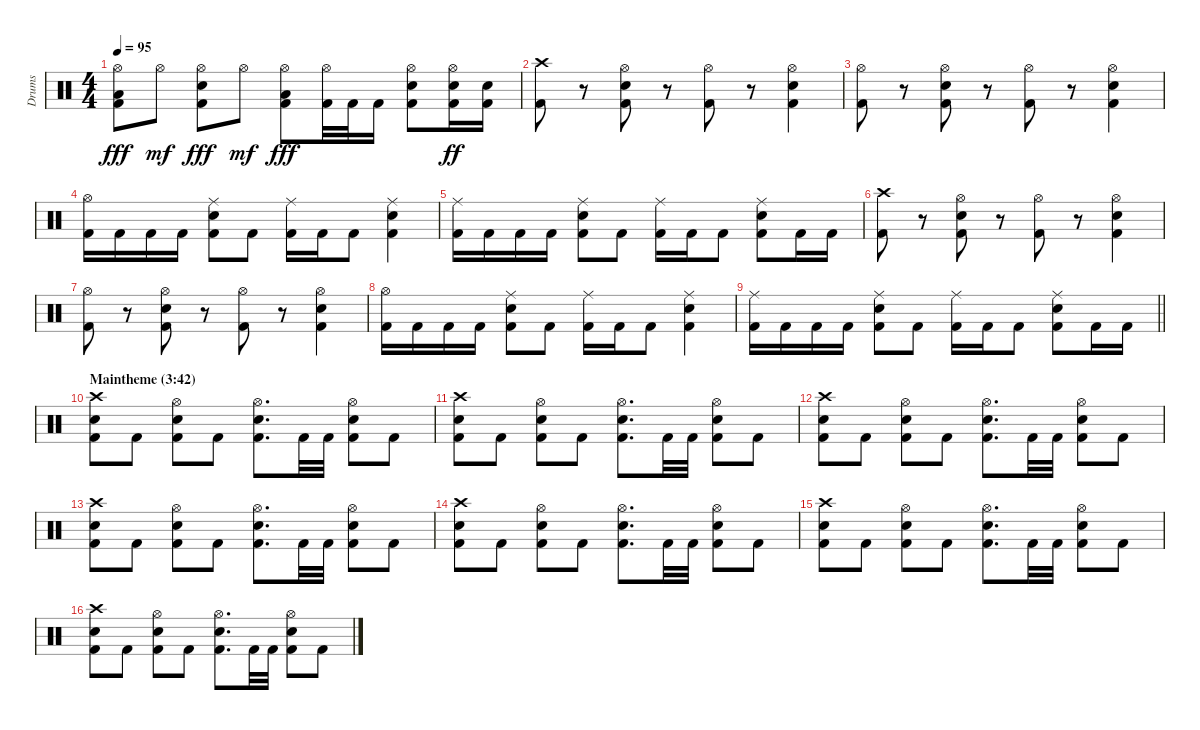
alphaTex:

\track ("Drums" "Drums") {instrument percussion}
\staff {score}
\articulation defaults
\ts (4 4)
\tempo 95
\clef neutral
\ks c
("Hi-Hat (open)" "Low Floor Tom (hit)" "Kick (hit) 2").8{dy fff} "Hi-Hat (open)".8{dy mf} ("Hi-Hat (open)" "Snare (hit) 2" "Kick (hit) 2").8{dy fff} "Hi-Hat (open)".8{dy mf} ("Hi-Hat (open)" "Low Floor Tom (hit)" "Kick (hit) 2").8{dy fff} ("Hi-Hat (open)" "Kick (hit) 2").32 "Kick (hit) 2".32 "Kick (hit) 2".16 ("Hi-Hat (open)" "Snare (hit) 2" "Kick (hit) 2").8 ("Hi-Hat (open)" "Snare (hit) 2" "Kick (hit) 2").16{dy ff} ("Snare (hit) 2" "Kick (hit) 2").16 |
("Crash high (hit)" "Kick (hit) 2").8 r.8 ("Hi-Hat (open)" "Snare (hit) 2" "Kick (hit) 2").8 r.8 ("Hi-Hat (open)" "Kick (hit) 2").8 r.8 ("Hi-Hat (open)" "Snare (hit) 2" "Kick (hit) 2").4 |
("Hi-Hat (open)" "Kick (hit) 2").8 r.8 ("Hi-Hat (open)" "Snare (hit) 2" "Kick (hit) 2").8 r.8 ("Hi-Hat (open)" "Kick (hit) 2").8 r.8 ("Hi-Hat (open)" "Snare (hit) 2" "Kick (hit) 2").4 |
("Hi-Hat (open)" "Kick (hit) 2").16 "Kick (hit) 2".16 "Kick (hit) 2".16 "Kick (hit) 2".16 ("Ride (middle)" "Snare (hit) 2" "Kick (hit) 2").8 "Kick (hit) 2".8 ("Ride (middle)" "Kick (hit) 2").16 "Kick (hit) 2".16 "Kick (hit) 2".8 ("Ride (middle)" "Snare (hit) 2" "Kick (hit) 2").4 |
("Ride (middle)" "Kick (hit) 2").16 "Kick (hit) 2".16 "Kick (hit) 2".16 "Kick (hit) 2".16 ("Ride (middle)" "Snare (hit) 2" "Kick (hit) 2").8 "Kick (hit) 2".8 ("Ride (middle)" "Kick (hit) 2").16 "Kick (hit) 2".16 "Kick (hit) 2".8 ("Ride (middle)" "Snare (hit) 2" "Kick (hit) 2").8 "Kick (hit) 2".16 "Kick (hit) 2".16 |
("Crash high (hit)" "Kick (hit) 2").8 r.8 ("Hi-Hat (open)" "Snare (hit) 2" "Kick (hit) 2").8 r.8 ("Hi-Hat (open)" "Kick (hit) 2").8 r.8 ("Hi-Hat (open)" "Snare (hit) 2" "Kick (hit) 2").4 |
("Hi-Hat (open)" "Kick (hit) 2").8 r.8 ("Hi-Hat (open)" "Snare (hit) 2" "Kick (hit) 2").8 r.8 ("Hi-Hat (open)" "Kick (hit) 2").8 r.8 ("Hi-Hat (open)" "Snare (hit) 2" "Kick (hit) 2").4 |
("Hi-Hat (open)" "Kick (hit) 2").16 "Kick (hit) 2".16 "Kick (hit) 2".16 "Kick (hit) 2".16 ("Ride (middle)" "Snare (hit) 2" "Kick (hit) 2").8 "Kick (hit) 2".8 ("Ride (middle)" "Kick (hit) 2").16 "Kick (hit) 2".16 "Kick (hit) 2".8 ("Ride (middle)" "Snare (hit) 2" "Kick (hit) 2").4 |
\barLineRight lightlight
("Ride (middle)" "Kick (hit) 2").16 "Kick (hit) 2".16 "Kick (hit) 2".16 "Kick (hit) 2".16 ("Ride (middle)" "Snare (hit) 2" "Kick (hit) 2").8 "Kick (hit) 2".8 ("Ride (middle)" "Kick (hit) 2").16 "Kick (hit) 2".16 "Kick (hit) 2".8 ("Ride (middle)" "Snare (hit) 2" "Kick (hit) 2").8 "Kick (hit) 2".16 "Kick (hit) 2".16 |
\section ("" "Maintheme (3:42)")
("Crash high (hit)" "Snare (hit) 2" "Kick (hit) 2").8 "Kick (hit) 2".8 ("Hi-Hat (open)" "Snare (hit) 2" "Kick (hit) 2").8 "Kick (hit) 2".8 ("Hi-Hat (open)" "Snare (hit) 2" "Kick (hit) 2").8{d} "Kick (hit) 2".32 "Kick (hit) 2".32 ("Hi-Hat (open)" "Snare (hit) 2" "Kick (hit) 2").8 "Kick (hit) 2".8 |
("Crash high (hit)" "Snare (hit) 2" "Kick (hit) 2").8 "Kick (hit) 2".8 ("Hi-Hat (open)" "Snare (hit) 2" "Kick (hit) 2").8 "Kick (hit) 2".8 ("Hi-Hat (open)" "Snare (hit) 2" "Kick (hit) 2").8{d} "Kick (hit) 2".32 "Kick (hit) 2".32 ("Hi-Hat (open)" "Snare (hit) 2" "Kick (hit) 2").8 "Kick (hit) 2".8 |
("Crash high (hit)" "Snare (hit) 2" "Kick (hit) 2").8 "Kick (hit) 2".8 ("Hi-Hat (open)" "Snare (hit) 2" "Kick (hit) 2").8 "Kick (hit) 2".8 ("Hi-Hat (open)" "Snare (hit) 2" "Kick (hit) 2").8{d} "Kick (hit) 2".32 "Kick (hit) 2".32 ("Hi-Hat (open)" "Snare (hit) 2" "Kick (hit) 2").8 "Kick (hit) 2".8 |
("Crash high (hit)" "Snare (hit) 2" "Kick (hit) 2").8 "Kick (hit) 2".8 ("Hi-Hat (open)" "Snare (hit) 2" "Kick (hit) 2").8 "Kick (hit) 2".8 ("Hi-Hat (open)" "Snare (hit) 2" "Kick (hit) 2").8{d} "Kick (hit) 2".32 "Kick (hit) 2".32 ("Hi-Hat (open)" "Snare (hit) 2" "Kick (hit) 2").8 "Kick (hit) 2".8 |
("Crash high (hit)" "Snare (hit) 2" "Kick (hit) 2").8 "Kick (hit) 2".8 ("Hi-Hat (open)" "Snare (hit) 2" "Kick (hit) 2").8 "Kick (hit) 2".8 ("Hi-Hat (open)" "Snare (hit) 2" "Kick (hit) 2").8{d} "Kick (hit) 2".32 "Kick (hit) 2".32 ("Hi-Hat (open)" "Snare (hit) 2" "Kick (hit) 2").8 "Kick (hit) 2".8 |
("Crash high (hit)" "Snare (hit) 2" "Kick (hit) 2").8 "Kick (hit) 2".8 ("Hi-Hat (open)" "Snare (hit) 2" "Kick (hit) 2").8 "Kick (hit) 2".8 ("Hi-Hat (open)" "Snare (hit) 2" "Kick (hit) 2").8{d} "Kick (hit) 2".32 "Kick (hit) 2".32 ("Hi-Hat (open)" "Snare (hit) 2" "Kick (hit) 2").8 "Kick (hit) 2".8 |
("Crash high (hit)" "Snare (hit) 2" "Kick (hit) 2").8 "Kick (hit) 2".8 ("Hi-Hat (open)" "Snare (hit) 2" "Kick (hit) 2").8 "Kick (hit) 2".8 ("Hi-Hat (open)" "Snare (hit) 2" "Kick (hit) 2").8{d} "Kick (hit) 2".32 "Kick (hit) 2".32 ("Hi-Hat (open)" "Snare (hit) 2" "Kick (hit) 2").8 "Kick (hit) 2".8
